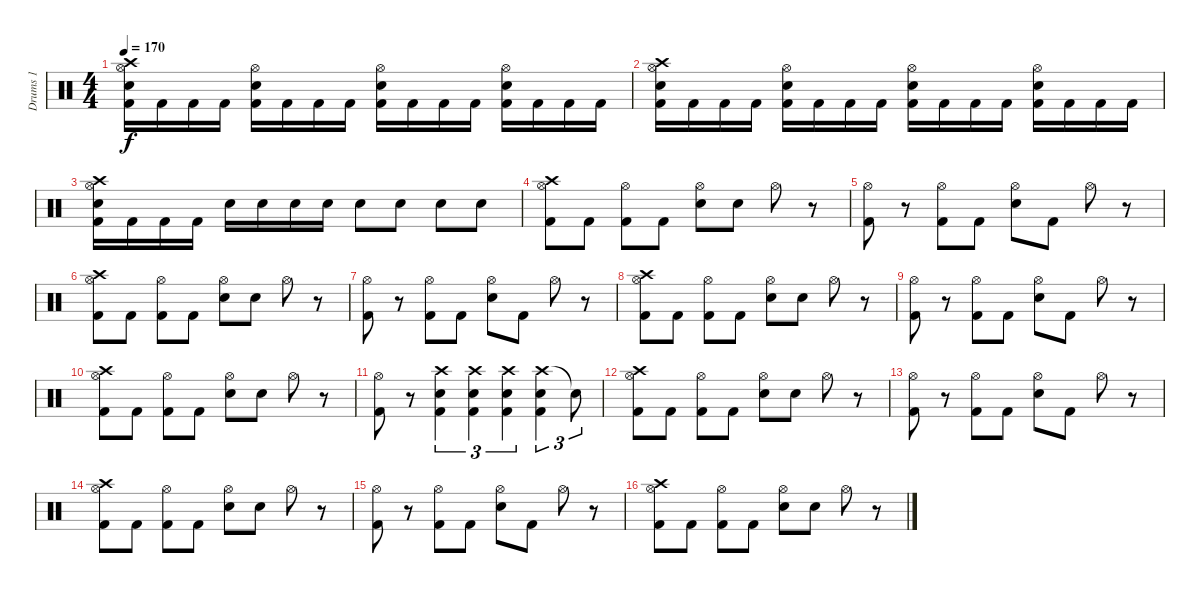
\track ("Drums 1" "Drums 1") {instrument percussion}
\staff {score}
\articulation defaults
\ts (4 4)
\tempo 170
\clef neutral
\ks c
("Crash high (hit)" "Hi-Hat (open)" "Snare (hit) 2" "Kick (hit) 2").16{dy f} "Kick (hit) 2".16 "Kick (hit) 2".16 "Kick (hit) 2".16 ("Hi-Hat (open)" "Snare (hit) 2" "Kick (hit) 2").16 "Kick (hit) 2".16 "Kick (hit) 2".16 "Kick (hit) 2".16 ("Hi-Hat (open)" "Snare (hit) 2" "Kick (hit) 2").16 "Kick (hit) 2".16 "Kick (hit) 2".16 "Kick (hit) 2".16 ("Hi-Hat (open)" "Snare (hit) 2" "Kick (hit) 2").16 "Kick (hit) 2".16 "Kick (hit) 2".16 "Kick (hit) 2".16 |
("Crash high (hit)" "Hi-Hat (open)" "Snare (hit) 2" "Kick (hit) 2").16 "Kick (hit) 2".16 "Kick (hit) 2".16 "Kick (hit) 2".16 ("Hi-Hat (open)" "Snare (hit) 2" "Kick (hit) 2").16 "Kick (hit) 2".16 "Kick (hit) 2".16 "Kick (hit) 2".16 ("Hi-Hat (open)" "Snare (hit) 2" "Kick (hit) 2").16 "Kick (hit) 2".16 "Kick (hit) 2".16 "Kick (hit) 2".16 ("Hi-Hat (open)" "Snare (hit) 2" "Kick (hit) 2").16 "Kick (hit) 2".16 "Kick (hit) 2".16 "Kick (hit) 2".16 |
("Crash high (hit)" "Hi-Hat (open)" "Snare (hit) 2" "Kick (hit) 2").16 "Kick (hit) 2".16 "Kick (hit) 2".16 "Kick (hit) 2".16 "Snare (hit) 2".16 "Snare (hit) 2".16 "Snare (hit) 2".16 "Snare (hit) 2".16 "Snare (hit) 2".8 "Snare (hit) 2".8 "Snare (hit) 2".8 "Snare (hit) 2".8 |
("Crash high (hit)" "Hi-Hat (open)" "Kick (hit) 2").8 "Kick (hit) 2".8 ("Hi-Hat (open)" "Kick (hit) 2").8 "Kick (hit) 2".8 ("Hi-Hat (open)" "Snare (hit) 2").8 "Snare (hit) 2".8 "Hi-Hat (open)".8 r.8 |
("Hi-Hat (open)" "Kick (hit) 2").8 r.8 ("Hi-Hat (open)" "Kick (hit) 2").8 "Kick (hit) 2".8 ("Hi-Hat (open)" "Snare (hit) 2").8 "Kick (hit) 2".8 "Hi-Hat (open)".8 r.8 |
("Crash high (hit)" "Hi-Hat (open)" "Kick (hit) 2").8 "Kick (hit) 2".8 ("Hi-Hat (open)" "Kick (hit) 2").8 "Kick (hit) 2".8 ("Hi-Hat (open)" "Snare (hit) 2").8 "Snare (hit) 2".8 "Hi-Hat (open)".8 r.8 |
("Hi-Hat (open)" "Kick (hit) 2").8 r.8 ("Hi-Hat (open)" "Kick (hit) 2").8 "Kick (hit) 2".8 ("Hi-Hat (open)" "Snare (hit) 2").8 "Kick (hit) 2".8 "Hi-Hat (open)".8 r.8 |
("Crash high (hit)" "Hi-Hat (open)" "Kick (hit) 2").8 "Kick (hit) 2".8 ("Hi-Hat (open)" "Kick (hit) 2").8 "Kick (hit) 2".8 ("Hi-Hat (open)" "Snare (hit) 2").8 "Snare (hit) 2".8 "Hi-Hat (open)".8 r.8 |
("Hi-Hat (open)" "Kick (hit) 2").8 r.8 ("Hi-Hat (open)" "Kick (hit) 2").8 "Kick (hit) 2".8 ("Hi-Hat (open)" "Snare (hit) 2").8 "Kick (hit) 2".8 "Hi-Hat (open)".8 r.8 |
("Crash high (hit)" "Hi-Hat (open)" "Kick (hit) 2").8 "Kick (hit) 2".8 ("Hi-Hat (open)" "Kick (hit) 2").8 "Kick (hit) 2".8 ("Hi-Hat (open)" "Snare (hit) 2").8 "Snare (hit) 2".8 "Hi-Hat (open)".8 r.8 |
("Hi-Hat (open)" "Kick (hit) 2").8 r.8 ("Crash high (hit)" "Snare (hit) 2" "Kick (hit) 2").4{tu (3 2)} ("Crash high (hit)" "Snare (hit) 2" "Kick (hit) 2").4{tu (3 2)} ("Crash high (hit)" "Snare (hit) 2" "Kick (hit) 2").4{tu (3 2)} ("Crash high (hit)" "Snare (hit) 2" "Kick (hit) 2").4{tu (3 2)} "Snare (hit)"{t}.8{tu (3 2)} |
("Crash high (hit)" "Hi-Hat (open)" "Kick (hit) 2").8 "Kick (hit) 2".8 ("Hi-Hat (open)" "Kick (hit) 2").8 "Kick (hit) 2".8 ("Hi-Hat (open)" "Snare (hit) 2").8 "Snare (hit) 2".8 "Hi-Hat (open)".8 r.8 |
("Hi-Hat (open)" "Kick (hit) 2").8 r.8 ("Hi-Hat (open)" "Kick (hit) 2").8 "Kick (hit) 2".8 ("Hi-Hat (open)" "Snare (hit) 2").8 "Kick (hit) 2".8 "Hi-Hat (open)".8 r.8 |
("Crash high (hit)" "Hi-Hat (open)" "Kick (hit) 2").8 "Kick (hit) 2".8 ("Hi-Hat (open)" "Kick (hit) 2").8 "Kick (hit) 2".8 ("Hi-Hat (open)" "Snare (hit) 2").8 "Snare (hit) 2".8 "Hi-Hat (open)".8 r.8 |
("Hi-Hat (open)" "Kick (hit) 2").8 r.8 ("Hi-Hat (open)" "Kick (hit) 2").8 "Kick (hit) 2".8 ("Hi-Hat (open)" "Snare (hit) 2").8 "Kick (hit) 2".8 "Hi-Hat (open)".8 r.8 |
("Crash high (hit)" "Hi-Hat (open)" "Kick (hit) 2").8 "Kick (hit) 2".8 ("Hi-Hat (open)" "Kick (hit) 2").8 "Kick (hit) 2".8 ("Hi-Hat (open)" "Snare (hit) 2").8 "Snare (hit) 2".8 "Hi-Hat (open)".8 r.8
